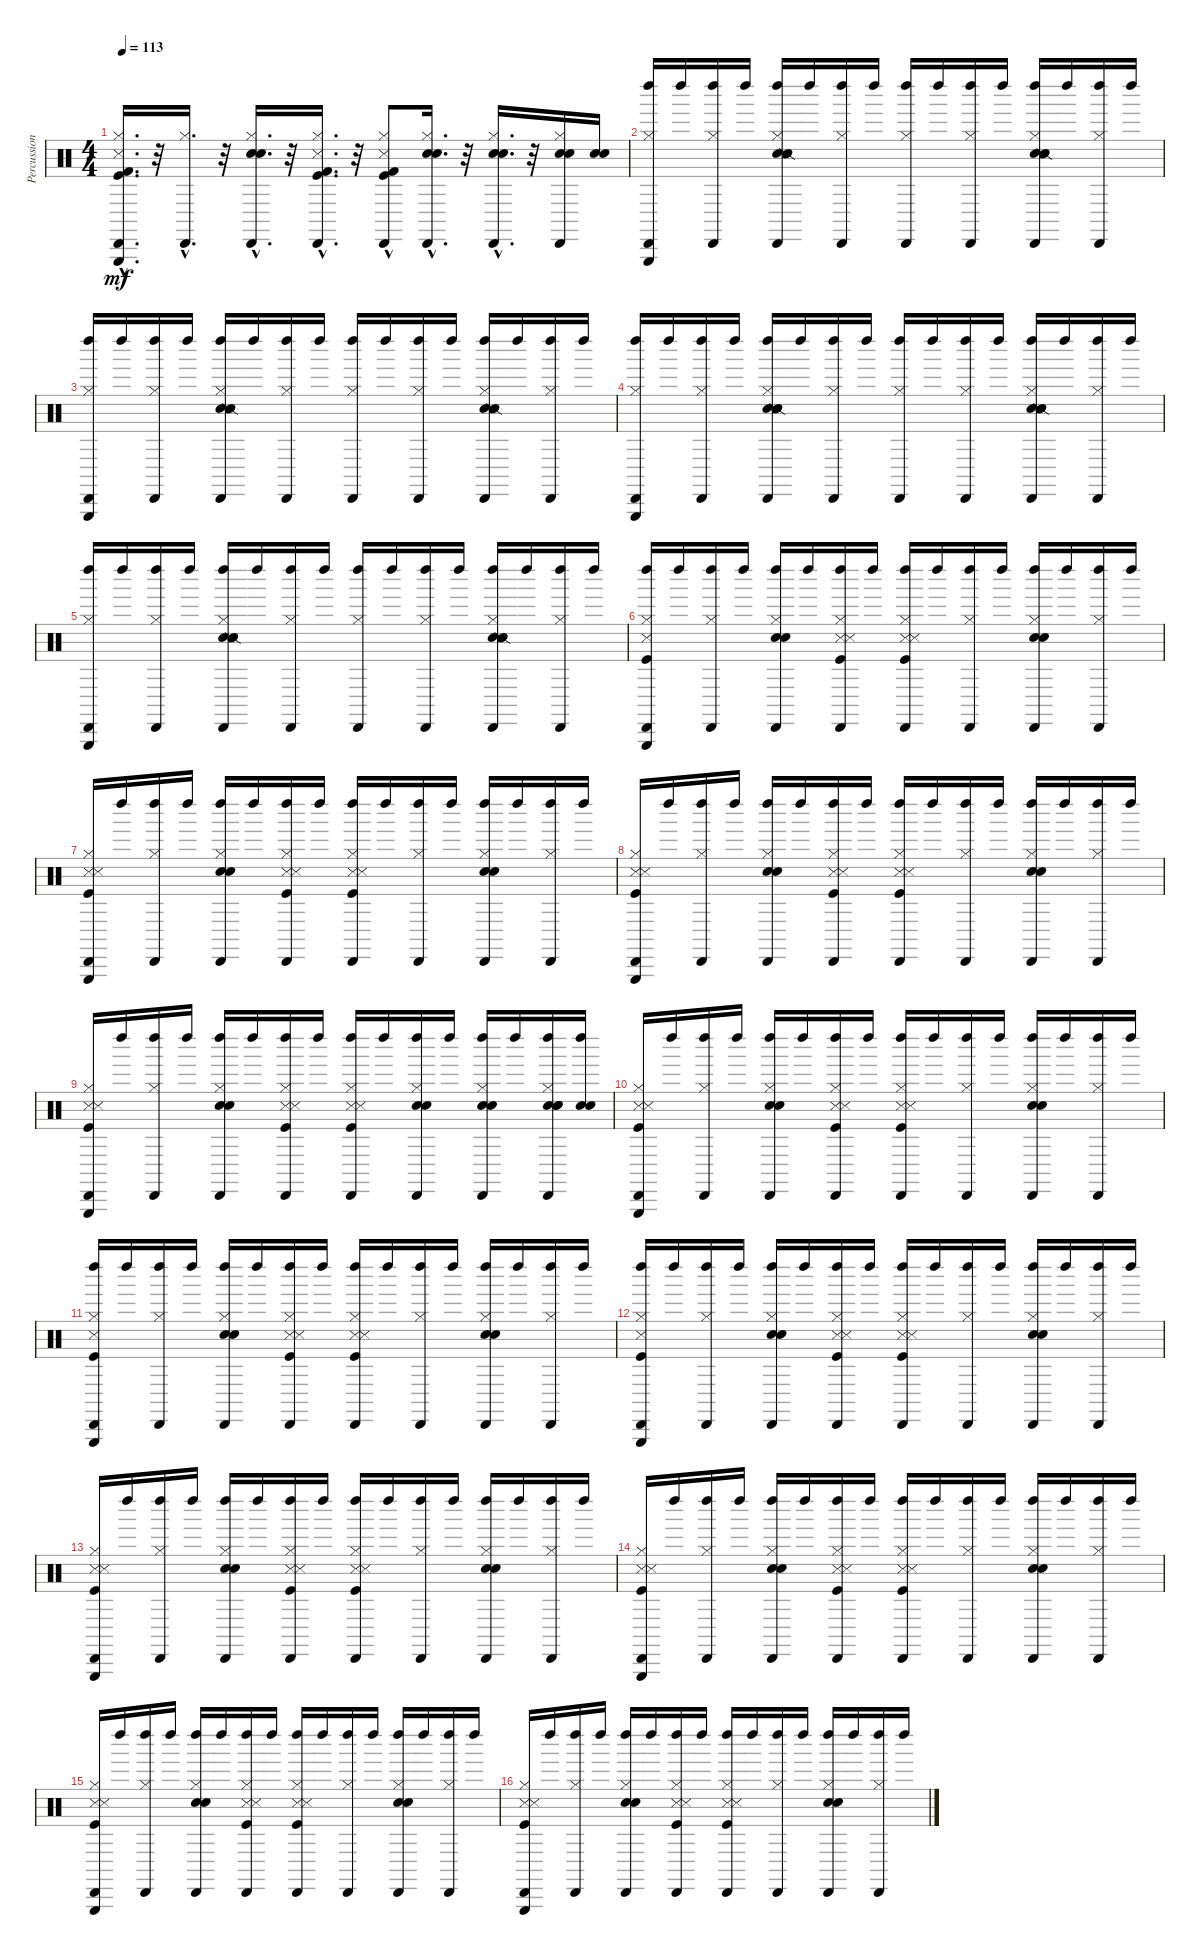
\track ("Percussion" "Percussion") {instrument percussion}
\staff {score}
\articulation defaults
\ts (4 4)
\tempo 113
\clef neutral
\ks c
("Kick (hit) 2"{hac} "Cabasa (hit)"{hac} "Triangle (hit)"{hac} "Metronome (hit)"{hac} "Kick (hit)"{hac} "Hi-Hat (closed)"{hac}).16{d dy mf} r.32 ("Cabasa (hit)"{hac} "Hi-Hat (closed)"{hac}).16{d} r.32 ("Cabasa (hit)"{hac} "Electric Snare (hit)"{hac} "Hi-Hat (closed)"{hac} "Hand Clap (hit)"{hac}).16{d} r.32 ("Cabasa (hit)"{hac} "Kick (hit)"{hac} "Metronome (hit)"{hac} "Hi-Hat (closed)"{hac} "Kick (hit) 2"{hac}).16{d} r.32 ("Kick (hit) 2"{hac} "Cabasa (hit)"{hac} "Metronome (hit)" "Kick (hit)"{hac} "Hi-Hat (closed)"{hac}).8 ("Cabasa (hit)"{hac} "Hi-Hat (closed)"{hac} "Electric Snare (hit)"{hac} "Hand Clap (hit)"{hac}).16{d} r.32 ("Cabasa (hit)"{hac} "Hand Clap (hit)"{hac} "Electric Snare (hit)"{hac} "Hi-Hat (closed)"{hac}).16{d} r.32 ("Electric Snare (hit)" "Hand Clap (hit)" "Hi-Hat (closed)" "Cabasa (hit)").16 ("Electric Snare (hit)" "Hand Clap (hit)").16 |
("Hi-Hat (closed)" "Triangle (hit)" "Cabasa (hit)" "Left Maraca (hit)").16 "Left Maraca (hit)".16 ("Hi-Hat (closed)" "Cabasa (hit)" "Left Maraca (hit)").16 "Left Maraca (hit)".16 ("Hi-Hat (closed)" "Cabasa (hit)" "Left Maraca (hit)" "Hand Clap (hit)" "Snare (side stick) 2" "Snare (hit)").16 "Left Maraca (hit)".16 ("Cabasa (hit)" "Hi-Hat (closed)" "Left Maraca (hit)").16 "Left Maraca (hit)".16 ("Hi-Hat (closed)" "Cabasa (hit)" "Left Maraca (hit)").16 "Left Maraca (hit)".16 ("Hi-Hat (closed)" "Cabasa (hit)" "Left Maraca (hit)").16 "Left Maraca (hit)".16 ("Hand Clap (hit)" "Hi-Hat (closed)" "Cabasa (hit)" "Left Maraca (hit)" "Snare (side stick) 2" "Snare (hit)").16 "Left Maraca (hit)".16 ("Hi-Hat (closed)" "Cabasa (hit)" "Left Maraca (hit)").16 "Left Maraca (hit)".16 |
("Left Maraca (hit)" "Cabasa (hit)" "Triangle (hit)" "Hi-Hat (closed)").16 "Left Maraca (hit)".16 ("Left Maraca (hit)" "Cabasa (hit)" "Hi-Hat (closed)").16 "Left Maraca (hit)".16 ("Snare (hit)" "Snare (side stick) 2" "Hand Clap (hit)" "Left Maraca (hit)" "Cabasa (hit)" "Hi-Hat (closed)").16 "Left Maraca (hit)".16 ("Left Maraca (hit)" "Cabasa (hit)" "Hi-Hat (closed)").16 "Left Maraca (hit)".16 ("Left Maraca (hit)" "Cabasa (hit)" "Hi-Hat (closed)").16 "Left Maraca (hit)".16 ("Left Maraca (hit)" "Cabasa (hit)" "Hi-Hat (closed)").16 "Left Maraca (hit)".16 ("Snare (hit)" "Snare (side stick) 2" "Left Maraca (hit)" "Cabasa (hit)" "Hi-Hat (closed)" "Hand Clap (hit)").16 "Left Maraca (hit)".16 ("Left Maraca (hit)" "Cabasa (hit)" "Hi-Hat (closed)").16 "Left Maraca (hit)".16 |
("Left Maraca (hit)" "Cabasa (hit)" "Triangle (hit)" "Hi-Hat (closed)").16 "Left Maraca (hit)".16 ("Left Maraca (hit)" "Cabasa (hit)" "Hi-Hat (closed)").16 "Left Maraca (hit)".16 ("Snare (hit)" "Snare (side stick) 2" "Hand Clap (hit)" "Left Maraca (hit)" "Cabasa (hit)" "Hi-Hat (closed)").16 "Left Maraca (hit)".16 ("Left Maraca (hit)" "Cabasa (hit)" "Hi-Hat (closed)").16 "Left Maraca (hit)".16 ("Left Maraca (hit)" "Cabasa (hit)" "Hi-Hat (closed)").16 "Left Maraca (hit)".16 ("Left Maraca (hit)" "Cabasa (hit)" "Hi-Hat (closed)").16 "Left Maraca (hit)".16 ("Snare (hit)" "Snare (side stick) 2" "Left Maraca (hit)" "Cabasa (hit)" "Hi-Hat (closed)" "Hand Clap (hit)").16 "Left Maraca (hit)".16 ("Left Maraca (hit)" "Cabasa (hit)" "Hi-Hat (closed)").16 "Left Maraca (hit)".16 |
("Left Maraca (hit)" "Cabasa (hit)" "Triangle (hit)" "Hi-Hat (closed)").16 "Left Maraca (hit)".16 ("Left Maraca (hit)" "Cabasa (hit)" "Hi-Hat (closed)").16 "Left Maraca (hit)".16 ("Snare (hit)" "Snare (side stick) 2" "Hand Clap (hit)" "Left Maraca (hit)" "Cabasa (hit)" "Hi-Hat (closed)").16 "Left Maraca (hit)".16 ("Left Maraca (hit)" "Cabasa (hit)" "Hi-Hat (closed)").16 "Left Maraca (hit)".16 ("Left Maraca (hit)" "Cabasa (hit)" "Hi-Hat (closed)").16 "Left Maraca (hit)".16 ("Left Maraca (hit)" "Cabasa (hit)" "Hi-Hat (closed)").16 "Left Maraca (hit)".16 ("Snare (hit)" "Snare (side stick) 2" "Left Maraca (hit)" "Cabasa (hit)" "Hi-Hat (closed)" "Hand Clap (hit)").16 "Left Maraca (hit)".16 ("Left Maraca (hit)" "Cabasa (hit)" "Hi-Hat (closed)").16 "Left Maraca (hit)".16 |
("Left Maraca (hit)" "Cabasa (hit)" "Triangle (hit)" "Hi-Hat (closed)" "Snare (side stick) 3" "Kick (hit)").16 "Left Maraca (hit)".16 ("Left Maraca (hit)" "Cabasa (hit)" "Hi-Hat (closed)").16 "Left Maraca (hit)".16 ("Left Maraca (hit)" "Cabasa (hit)" "Hi-Hat (closed)" "Electric Snare (hit)" "Hand Clap (hit)").16 "Left Maraca (hit)".16 ("Left Maraca (hit)" "Cabasa (hit)" "Hi-Hat (closed)" "Metronome (hit)" "Kick (hit)" "Snare (side stick) 3").16 "Left Maraca (hit)".16 ("Left Maraca (hit)" "Cabasa (hit)" "Hi-Hat (closed)" "Snare (side stick) 3" "Kick (hit)" "Metronome (hit)").16 "Left Maraca (hit)".16 ("Left Maraca (hit)" "Cabasa (hit)" "Hi-Hat (closed)").16 "Left Maraca (hit)".16 ("Left Maraca (hit)" "Cabasa (hit)" "Hi-Hat (closed)" "Electric Snare (hit)" "Hand Clap (hit)").16 "Left Maraca (hit)".16 ("Left Maraca (hit)" "Cabasa (hit)" "Hi-Hat (closed)").16 "Left Maraca (hit)".16 |
("Metronome (hit)" "Kick (hit)" "Snare (side stick) 3" "Hi-Hat (closed)" "Triangle (hit)" "Cabasa (hit)").16 "Left Maraca (hit)".16 ("Hi-Hat (closed)" "Cabasa (hit)" "Left Maraca (hit)").16 "Left Maraca (hit)".16 ("Hand Clap (hit)" "Electric Snare (hit)" "Hi-Hat (closed)" "Cabasa (hit)" "Left Maraca (hit)").16 "Left Maraca (hit)".16 ("Snare (side stick) 3" "Kick (hit)" "Metronome (hit)" "Hi-Hat (closed)" "Cabasa (hit)" "Left Maraca (hit)").16 "Left Maraca (hit)".16 ("Metronome (hit)" "Kick (hit)" "Snare (side stick) 3" "Hi-Hat (closed)" "Cabasa (hit)" "Left Maraca (hit)").16 "Left Maraca (hit)".16 ("Hi-Hat (closed)" "Cabasa (hit)" "Left Maraca (hit)").16 "Left Maraca (hit)".16 ("Hand Clap (hit)" "Electric Snare (hit)" "Hi-Hat (closed)" "Cabasa (hit)" "Left Maraca (hit)").16 "Left Maraca (hit)".16 ("Hi-Hat (closed)" "Cabasa (hit)" "Left Maraca (hit)").16 "Left Maraca (hit)".16 |
("Metronome (hit)" "Kick (hit)" "Snare (side stick) 3" "Hi-Hat (closed)" "Triangle (hit)" "Cabasa (hit)").16 "Left Maraca (hit)".16 ("Hi-Hat (closed)" "Cabasa (hit)" "Left Maraca (hit)").16 "Left Maraca (hit)".16 ("Hand Clap (hit)" "Electric Snare (hit)" "Hi-Hat (closed)" "Cabasa (hit)" "Left Maraca (hit)").16 "Left Maraca (hit)".16 ("Snare (side stick) 3" "Kick (hit)" "Metronome (hit)" "Hi-Hat (closed)" "Cabasa (hit)" "Left Maraca (hit)").16 "Left Maraca (hit)".16 ("Metronome (hit)" "Kick (hit)" "Snare (side stick) 3" "Hi-Hat (closed)" "Cabasa (hit)" "Left Maraca (hit)").16 "Left Maraca (hit)".16 ("Hi-Hat (closed)" "Cabasa (hit)" "Left Maraca (hit)").16 "Left Maraca (hit)".16 ("Hand Clap (hit)" "Electric Snare (hit)" "Hi-Hat (closed)" "Cabasa (hit)" "Left Maraca (hit)").16 "Left Maraca (hit)".16 ("Hi-Hat (closed)" "Cabasa (hit)" "Left Maraca (hit)").16 "Left Maraca (hit)".16 |
("Metronome (hit)" "Kick (hit)" "Snare (side stick) 3" "Hi-Hat (closed)" "Triangle (hit)" "Cabasa (hit)").16 "Left Maraca (hit)".16 ("Hi-Hat (closed)" "Cabasa (hit)" "Left Maraca (hit)").16 "Left Maraca (hit)".16 ("Hand Clap (hit)" "Electric Snare (hit)" "Hi-Hat (closed)" "Cabasa (hit)" "Left Maraca (hit)").16 "Left Maraca (hit)".16 ("Snare (side stick) 3" "Kick (hit)" "Metronome (hit)" "Hi-Hat (closed)" "Cabasa (hit)" "Left Maraca (hit)").16 "Left Maraca (hit)".16 ("Metronome (hit)" "Kick (hit)" "Snare (side stick) 3" "Hi-Hat (closed)" "Cabasa (hit)" "Left Maraca (hit)").16 "Left Maraca (hit)".16 ("Hand Clap (hit)" "Electric Snare (hit)" "Hi-Hat (closed)" "Cabasa (hit)" "Left Maraca (hit)").16 "Left Maraca (hit)".16 ("Hand Clap (hit)" "Electric Snare (hit)" "Hi-Hat (closed)" "Cabasa (hit)" "Left Maraca (hit)").16 "Left Maraca (hit)".16 ("Hand Clap (hit)" "Hi-Hat (closed)" "Cabasa (hit)" "Left Maraca (hit)" "Electric Snare (hit)" "Hand Clap (hit)").16 ("Hand Clap (hit)" "Electric Snare (hit)" "Left Maraca (hit)").16 |
("Metronome (hit)" "Kick (hit)" "Snare (side stick) 3" "Hi-Hat (closed)" "Triangle (hit)" "Cabasa (hit)").16 "Left Maraca (hit)".16 ("Hi-Hat (closed)" "Cabasa (hit)" "Left Maraca (hit)").16 "Left Maraca (hit)".16 ("Hand Clap (hit)" "Electric Snare (hit)" "Hi-Hat (closed)" "Cabasa (hit)" "Left Maraca (hit)").16 "Left Maraca (hit)".16 ("Snare (side stick) 3" "Kick (hit)" "Metronome (hit)" "Hi-Hat (closed)" "Cabasa (hit)" "Left Maraca (hit)").16 "Left Maraca (hit)".16 ("Metronome (hit)" "Kick (hit)" "Snare (side stick) 3" "Hi-Hat (closed)" "Cabasa (hit)" "Left Maraca (hit)").16 "Left Maraca (hit)".16 ("Hi-Hat (closed)" "Cabasa (hit)" "Left Maraca (hit)").16 "Left Maraca (hit)".16 ("Hand Clap (hit)" "Electric Snare (hit)" "Hi-Hat (closed)" "Cabasa (hit)" "Left Maraca (hit)").16 "Left Maraca (hit)".16 ("Hi-Hat (closed)" "Cabasa (hit)" "Left Maraca (hit)").16 "Left Maraca (hit)".16 |
("Left Maraca (hit)" "Cabasa (hit)" "Triangle (hit)" "Hi-Hat (closed)" "Snare (side stick) 3" "Kick (hit)").16 "Left Maraca (hit)".16 ("Left Maraca (hit)" "Cabasa (hit)" "Hi-Hat (closed)").16 "Left Maraca (hit)".16 ("Left Maraca (hit)" "Cabasa (hit)" "Hi-Hat (closed)" "Electric Snare (hit)" "Hand Clap (hit)").16 "Left Maraca (hit)".16 ("Left Maraca (hit)" "Cabasa (hit)" "Hi-Hat (closed)" "Metronome (hit)" "Kick (hit)" "Snare (side stick) 3").16 "Left Maraca (hit)".16 ("Left Maraca (hit)" "Cabasa (hit)" "Hi-Hat (closed)" "Snare (side stick) 3" "Kick (hit)" "Metronome (hit)").16 "Left Maraca (hit)".16 ("Left Maraca (hit)" "Cabasa (hit)" "Hi-Hat (closed)").16 "Left Maraca (hit)".16 ("Left Maraca (hit)" "Cabasa (hit)" "Hi-Hat (closed)" "Electric Snare (hit)" "Hand Clap (hit)").16 "Left Maraca (hit)".16 ("Left Maraca (hit)" "Cabasa (hit)" "Hi-Hat (closed)").16 "Left Maraca (hit)".16 |
("Left Maraca (hit)" "Cabasa (hit)" "Triangle (hit)" "Hi-Hat (closed)" "Snare (side stick) 3" "Kick (hit)").16 "Left Maraca (hit)".16 ("Left Maraca (hit)" "Cabasa (hit)" "Hi-Hat (closed)").16 "Left Maraca (hit)".16 ("Left Maraca (hit)" "Cabasa (hit)" "Hi-Hat (closed)" "Electric Snare (hit)" "Hand Clap (hit)").16 "Left Maraca (hit)".16 ("Left Maraca (hit)" "Cabasa (hit)" "Hi-Hat (closed)" "Metronome (hit)" "Kick (hit)" "Snare (side stick) 3").16 "Left Maraca (hit)".16 ("Left Maraca (hit)" "Cabasa (hit)" "Hi-Hat (closed)" "Snare (side stick) 3" "Kick (hit)" "Metronome (hit)").16 "Left Maraca (hit)".16 ("Left Maraca (hit)" "Cabasa (hit)" "Hi-Hat (closed)").16 "Left Maraca (hit)".16 ("Left Maraca (hit)" "Cabasa (hit)" "Hi-Hat (closed)" "Electric Snare (hit)" "Hand Clap (hit)").16 "Left Maraca (hit)".16 ("Left Maraca (hit)" "Cabasa (hit)" "Hi-Hat (closed)").16 "Left Maraca (hit)".16 |
("Metronome (hit)" "Kick (hit)" "Snare (side stick) 3" "Hi-Hat (closed)" "Triangle (hit)" "Cabasa (hit)").16 "Left Maraca (hit)".16 ("Hi-Hat (closed)" "Cabasa (hit)" "Left Maraca (hit)").16 "Left Maraca (hit)".16 ("Hand Clap (hit)" "Electric Snare (hit)" "Hi-Hat (closed)" "Cabasa (hit)" "Left Maraca (hit)").16 "Left Maraca (hit)".16 ("Snare (side stick) 3" "Kick (hit)" "Metronome (hit)" "Hi-Hat (closed)" "Cabasa (hit)" "Left Maraca (hit)").16 "Left Maraca (hit)".16 ("Metronome (hit)" "Kick (hit)" "Snare (side stick) 3" "Hi-Hat (closed)" "Cabasa (hit)" "Left Maraca (hit)").16 "Left Maraca (hit)".16 ("Hi-Hat (closed)" "Cabasa (hit)" "Left Maraca (hit)").16 "Left Maraca (hit)".16 ("Hand Clap (hit)" "Electric Snare (hit)" "Hi-Hat (closed)" "Cabasa (hit)" "Left Maraca (hit)").16 "Left Maraca (hit)".16 ("Hi-Hat (closed)" "Cabasa (hit)" "Left Maraca (hit)").16 "Left Maraca (hit)".16 |
("Metronome (hit)" "Kick (hit)" "Snare (side stick) 3" "Hi-Hat (closed)" "Triangle (hit)" "Cabasa (hit)").16 "Left Maraca (hit)".16 ("Hi-Hat (closed)" "Cabasa (hit)" "Left Maraca (hit)").16 "Left Maraca (hit)".16 ("Hand Clap (hit)" "Electric Snare (hit)" "Hi-Hat (closed)" "Cabasa (hit)" "Left Maraca (hit)").16 "Left Maraca (hit)".16 ("Snare (side stick) 3" "Kick (hit)" "Metronome (hit)" "Hi-Hat (closed)" "Cabasa (hit)" "Left Maraca (hit)").16 "Left Maraca (hit)".16 ("Metronome (hit)" "Kick (hit)" "Snare (side stick) 3" "Hi-Hat (closed)" "Cabasa (hit)" "Left Maraca (hit)").16 "Left Maraca (hit)".16 ("Hi-Hat (closed)" "Cabasa (hit)" "Left Maraca (hit)").16 "Left Maraca (hit)".16 ("Hand Clap (hit)" "Electric Snare (hit)" "Hi-Hat (closed)" "Cabasa (hit)" "Left Maraca (hit)").16 "Left Maraca (hit)".16 ("Hi-Hat (closed)" "Cabasa (hit)" "Left Maraca (hit)").16 "Left Maraca (hit)".16 |
("Metronome (hit)" "Kick (hit)" "Snare (side stick) 3" "Hi-Hat (closed)" "Triangle (hit)" "Cabasa (hit)").16 "Left Maraca (hit)".16 ("Hi-Hat (closed)" "Cabasa (hit)" "Left Maraca (hit)").16 "Left Maraca (hit)".16 ("Hand Clap (hit)" "Electric Snare (hit)" "Hi-Hat (closed)" "Cabasa (hit)" "Left Maraca (hit)").16 "Left Maraca (hit)".16 ("Snare (side stick) 3" "Kick (hit)" "Metronome (hit)" "Hi-Hat (closed)" "Cabasa (hit)" "Left Maraca (hit)").16 "Left Maraca (hit)".16 ("Metronome (hit)" "Kick (hit)" "Snare (side stick) 3" "Hi-Hat (closed)" "Cabasa (hit)" "Left Maraca (hit)").16 "Left Maraca (hit)".16 ("Hi-Hat (closed)" "Cabasa (hit)" "Left Maraca (hit)").16 "Left Maraca (hit)".16 ("Hand Clap (hit)" "Electric Snare (hit)" "Hi-Hat (closed)" "Cabasa (hit)" "Left Maraca (hit)").16 "Left Maraca (hit)".16 ("Hi-Hat (closed)" "Cabasa (hit)" "Left Maraca (hit)").16 "Left Maraca (hit)".16 |
("Metronome (hit)" "Kick (hit)" "Snare (side stick) 3" "Hi-Hat (closed)" "Triangle (hit)" "Cabasa (hit)").16 "Left Maraca (hit)".16 ("Hi-Hat (closed)" "Cabasa (hit)" "Left Maraca (hit)").16 "Left Maraca (hit)".16 ("Hand Clap (hit)" "Electric Snare (hit)" "Hi-Hat (closed)" "Cabasa (hit)" "Left Maraca (hit)").16 "Left Maraca (hit)".16 ("Snare (side stick) 3" "Kick (hit)" "Metronome (hit)" "Hi-Hat (closed)" "Cabasa (hit)" "Left Maraca (hit)").16 "Left Maraca (hit)".16 ("Metronome (hit)" "Kick (hit)" "Snare (side stick) 3" "Hi-Hat (closed)" "Cabasa (hit)" "Left Maraca (hit)").16 "Left Maraca (hit)".16 ("Hi-Hat (closed)" "Cabasa (hit)" "Left Maraca (hit)").16 "Left Maraca (hit)".16 ("Hand Clap (hit)" "Electric Snare (hit)" "Hi-Hat (closed)" "Cabasa (hit)" "Left Maraca (hit)").16 "Left Maraca (hit)".16 ("Hi-Hat (closed)" "Cabasa (hit)" "Left Maraca (hit)").16 "Left Maraca (hit)".16
